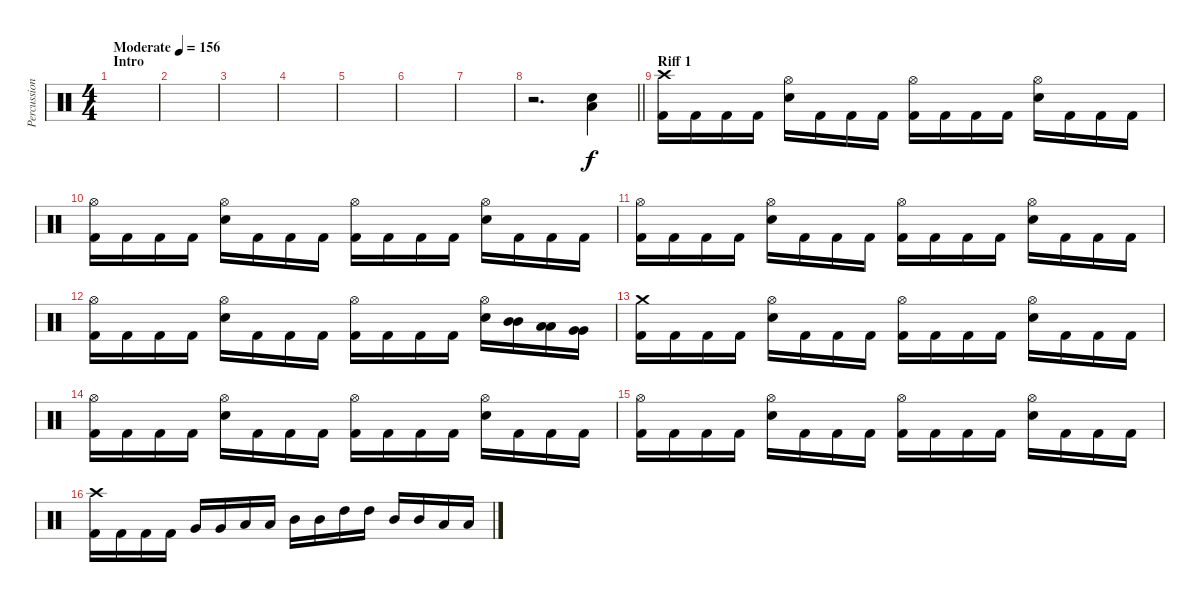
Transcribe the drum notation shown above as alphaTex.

\track ("Percussion" "Percussion") {instrument percussion}
\staff {score}
\articulation defaults
\ts (4 4)
\section ("" "Intro")
\tempo (156 "Moderate")
\clef neutral
\ks c
|
|
|
|
|
|
|
\barLineRight lightlight
r.2{d} ("Low Floor Tom (hit)" "Snare (hit) 2").4 |
\section ("" "Riff 1")
("Crash high (hit)" "Kick (hit) 2").16 "Kick (hit) 2".16 "Kick (hit) 2".16 "Kick (hit) 2".16 ("Hi-Hat (open)" "Snare (hit) 2").16 "Kick (hit) 2".16 "Kick (hit) 2".16 "Kick (hit) 2".16 ("Hi-Hat (open)" "Kick (hit) 2").16 "Kick (hit) 2".16 "Kick (hit) 2".16 "Kick (hit) 2".16 ("Hi-Hat (open)" "Snare (hit) 2").16 "Kick (hit) 2".16 "Kick (hit) 2".16 "Kick (hit) 2".16 |
("Hi-Hat (open)" "Kick (hit) 2").16 "Kick (hit) 2".16 "Kick (hit) 2".16 "Kick (hit) 2".16 ("Hi-Hat (open)" "Snare (hit) 2").16 "Kick (hit) 2".16 "Kick (hit) 2".16 "Kick (hit) 2".16 ("Hi-Hat (open)" "Kick (hit) 2").16 "Kick (hit) 2".16 "Kick (hit) 2".16 "Kick (hit) 2".16 ("Hi-Hat (open)" "Snare (hit) 2").16 "Kick (hit) 2".16 "Kick (hit) 2".16 "Kick (hit) 2".16 |
("Hi-Hat (open)" "Kick (hit) 2").16 "Kick (hit) 2".16 "Kick (hit) 2".16 "Kick (hit) 2".16 ("Hi-Hat (open)" "Snare (hit) 2").16 "Kick (hit) 2".16 "Kick (hit) 2".16 "Kick (hit) 2".16 ("Hi-Hat (open)" "Kick (hit) 2").16 "Kick (hit) 2".16 "Kick (hit) 2".16 "Kick (hit) 2".16 ("Hi-Hat (open)" "Snare (hit) 2").16 "Kick (hit) 2".16 "Kick (hit) 2".16 "Kick (hit) 2".16 |
("Hi-Hat (open)" "Kick (hit) 2").16 "Kick (hit) 2".16 "Kick (hit) 2".16 "Kick (hit) 2".16 ("Hi-Hat (open)" "Snare (hit) 2").16 "Kick (hit) 2".16 "Kick (hit) 2".16 "Kick (hit) 2".16 ("Hi-Hat (open)" "Kick (hit) 2").16 "Kick (hit) 2".16 "Kick (hit) 2".16 "Kick (hit) 2".16 ("Hi-Hat (open)" "Snare (hit) 2").16 ("Mid Tom (hit)" "Mid Tom (hit)").16 ("Low Tom (hit)" "Low Tom (hit)").16 ("Very Low Tom (hit)" "Very Low Tom (hit)").16 |
("Crash medium (hit)" "Kick (hit) 2").16 "Kick (hit) 2".16 "Kick (hit) 2".16 "Kick (hit) 2".16 ("Hi-Hat (open)" "Snare (hit) 2").16 "Kick (hit) 2".16 "Kick (hit) 2".16 "Kick (hit) 2".16 ("Hi-Hat (open)" "Kick (hit) 2").16 "Kick (hit) 2".16 "Kick (hit) 2".16 "Kick (hit) 2".16 ("Hi-Hat (open)" "Snare (hit) 2").16 "Kick (hit) 2".16 "Kick (hit) 2".16 "Kick (hit) 2".16 |
("Hi-Hat (open)" "Kick (hit) 2").16 "Kick (hit) 2".16 "Kick (hit) 2".16 "Kick (hit) 2".16 ("Hi-Hat (open)" "Snare (hit) 2").16 "Kick (hit) 2".16 "Kick (hit) 2".16 "Kick (hit) 2".16 ("Hi-Hat (open)" "Kick (hit) 2").16 "Kick (hit) 2".16 "Kick (hit) 2".16 "Kick (hit) 2".16 ("Hi-Hat (open)" "Snare (hit) 2").16 "Kick (hit) 2".16 "Kick (hit) 2".16 "Kick (hit) 2".16 |
("Hi-Hat (open)" "Kick (hit) 2").16 "Kick (hit) 2".16 "Kick (hit) 2".16 "Kick (hit) 2".16 ("Hi-Hat (open)" "Snare (hit) 2").16 "Kick (hit) 2".16 "Kick (hit) 2".16 "Kick (hit) 2".16 ("Hi-Hat (open)" "Kick (hit) 2").16 "Kick (hit) 2".16 "Kick (hit) 2".16 "Kick (hit) 2".16 ("Hi-Hat (open)" "Snare (hit) 2").16 "Kick (hit) 2".16 "Kick (hit) 2".16 "Kick (hit) 2".16 |
("Crash high (hit)" "Kick (hit) 2").16 "Kick (hit) 2".16 "Kick (hit) 2".16 "Kick (hit) 2".16 "Very Low Tom (hit)".16 "Very Low Tom (hit)".16 "Low Tom (hit)".16 "Low Tom (hit)".16 "Mid Tom (hit)".16 "Mid Tom (hit)".16 "High Tom (hit)".16 "High Tom (hit)".16 "Mid Tom (hit)".16 "Mid Tom (hit)".16 "Low Tom (hit)".16 "Low Tom (hit)".16
